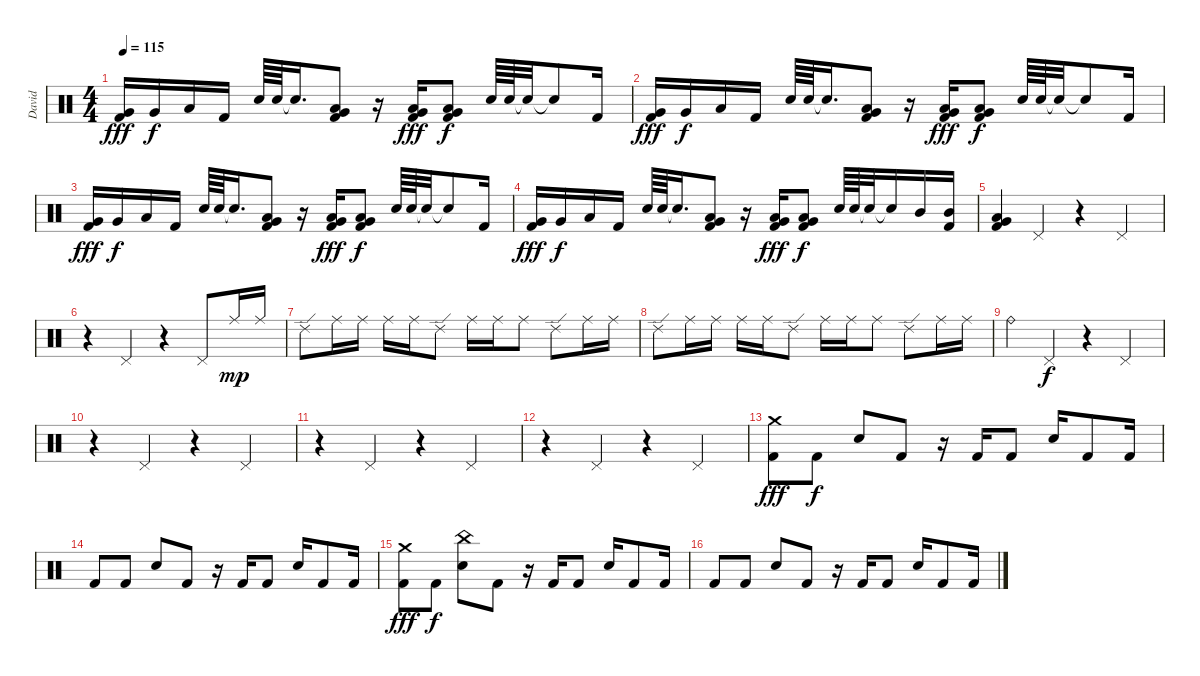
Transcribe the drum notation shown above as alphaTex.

\track ("David" "David") {instrument percussion}
\staff {score}
\articulation defaults
\ts (4 4)
\tempo 115
\clef neutral
\ks c
("Very Low Tom (hit)" "Kick (hit) 2").16{dy fff} "Very Low Tom (hit)".16{dy f} "Low Floor Tom (hit)".16 "Kick (hit) 2".16 "Snare (hit) 2".64 "Snare (hit) 2".64 "Snare (hit)"{t}.16{d} ("Low Tom (hit)" "Very Low Tom (hit)" "Kick (hit) 2").8 r.16 ("Very Low Tom (hit)" "Low Floor Tom (hit)" "Kick (hit) 2").16{dy fff} ("Very Low Tom (hit)" "Low Floor Tom (hit)" "Kick (hit) 2").8{dy f} "Snare (hit) 2".64 "Snare (hit) 2".64 "Snare (hit)"{t}.32 "Snare (hit)"{t}.8 "Kick (hit) 2".16 |
("Very Low Tom (hit)" "Kick (hit) 2").16{dy fff} "Very Low Tom (hit)".16{dy f} "Low Floor Tom (hit)".16 "Kick (hit) 2".16 "Snare (hit) 2".64 "Snare (hit) 2".64 "Snare (hit)"{t}.16{d} ("Low Tom (hit)" "Very Low Tom (hit)" "Kick (hit) 2").8 r.16 ("Very Low Tom (hit)" "Low Floor Tom (hit)" "Kick (hit) 2").16{dy fff} ("Very Low Tom (hit)" "Low Floor Tom (hit)" "Kick (hit) 2").8{dy f} "Snare (hit) 2".64 "Snare (hit) 2".64 "Snare (hit)"{t}.32 "Snare (hit)"{t}.8 "Kick (hit) 2".16 |
("Very Low Tom (hit)" "Kick (hit) 2").16{dy fff} "Very Low Tom (hit)".16{dy f} "Low Floor Tom (hit)".16 "Kick (hit) 2".16 "Snare (hit) 2".64 "Snare (hit) 2".64 "Snare (hit)"{t}.16{d} ("Low Tom (hit)" "Very Low Tom (hit)" "Kick (hit) 2").8 r.16 ("Very Low Tom (hit)" "Low Floor Tom (hit)" "Kick (hit) 2").16{dy fff} ("Very Low Tom (hit)" "Low Floor Tom (hit)" "Kick (hit) 2").8{dy f} "Snare (hit) 2".64 "Snare (hit) 2".64 "Snare (hit)"{t}.32 "Snare (hit)"{t}.8 "Kick (hit) 2".16 |
("Very Low Tom (hit)" "Kick (hit) 2").16{dy fff} "Very Low Tom (hit)".16{dy f} "Low Floor Tom (hit)".16 "Kick (hit) 2".16 "Snare (hit) 2".64 "Snare (hit) 2".64 "Snare (hit)"{t}.16{d} ("Low Tom (hit)" "Very Low Tom (hit)" "Kick (hit) 2").8 r.16 ("Very Low Tom (hit)" "Low Floor Tom (hit)" "Kick (hit) 2").16{dy fff} ("Very Low Tom (hit)" "Low Floor Tom (hit)" "Kick (hit) 2").8{dy f} "Snare (hit) 2".64 "Snare (hit) 2".64 "Snare (hit)"{t}.32 "Snare (hit)"{t}.16 "Mid Tom (hit)".16 ("Mid Tom (hit)" "Kick (hit) 2").16 |
("Very Low Tom (hit)" "Low Floor Tom (hit)" "Kick (hit) 2").4 "Pedal Hi-Hat (hit)".4 r.4 "Pedal Hi-Hat (hit)".4 |
r.4 "Pedal Hi-Hat (hit)".4 r.4 "Pedal Hi-Hat (hit)".8 "Ride (middle)".16{dy mp} "Ride (middle)".16 |
"Ride (edge) 2".8 "Ride (middle)".16 "Ride (middle)".16 "Ride (middle)".16 "Ride (middle)".16 "Ride (edge) 2".8 "Ride (middle)".16 "Ride (middle)".16 "Ride (middle)".8 "Ride (edge) 2".8 "Ride (middle)".16 "Ride (middle)".16 |
"Ride (edge) 2".8 "Ride (middle)".16 "Ride (middle)".16 "Ride (middle)".16 "Ride (middle)".16 "Ride (edge) 2".8 "Ride (middle)".16 "Ride (middle)".16 "Ride (middle)".8 "Ride (edge) 2".8 "Ride (middle)".16 "Ride (middle)".16 |
"Ride (bell)".4 "Pedal Hi-Hat (hit)".4{dy f} r.4 "Pedal Hi-Hat (hit)".4 |
r.4 "Pedal Hi-Hat (hit)".4 r.4 "Pedal Hi-Hat (hit)".4 |
r.4 "Pedal Hi-Hat (hit)".4 r.4 "Pedal Hi-Hat (hit)".4 |
r.4 "Pedal Hi-Hat (hit)".4 r.4 "Pedal Hi-Hat (hit)".4 |
("Crash medium (hit)" "Kick (hit) 2").8{dy fff} "Kick (hit) 2".8{dy f} "Snare (hit) 2".8 "Kick (hit) 2".8 r.16 "Kick (hit) 2".16 "Kick (hit) 2".8 "Snare (hit) 2".16 "Kick (hit) 2".8 "Kick (hit) 2".16 |
"Kick (hit) 2".8 "Kick (hit) 2".8 "Snare (hit) 2".8 "Kick (hit) 2".8 r.16 "Kick (hit) 2".16 "Kick (hit) 2".8 "Snare (hit) 2".16 "Kick (hit) 2".8 "Kick (hit) 2".16 |
("Crash medium (hit)" "Kick (hit) 2").8{dy fff} "Kick (hit) 2".8{dy f} ("China (hit)" "Snare (hit) 2").8 "Kick (hit) 2".8 r.16 "Kick (hit) 2".16 "Kick (hit) 2".8 "Snare (hit) 2".16 "Kick (hit) 2".8 "Kick (hit) 2".16 |
"Kick (hit) 2".8 "Kick (hit) 2".8 "Snare (hit) 2".8 "Kick (hit) 2".8 r.16 "Kick (hit) 2".16 "Kick (hit) 2".8 "Snare (hit) 2".16 "Kick (hit) 2".8 "Kick (hit) 2".16
